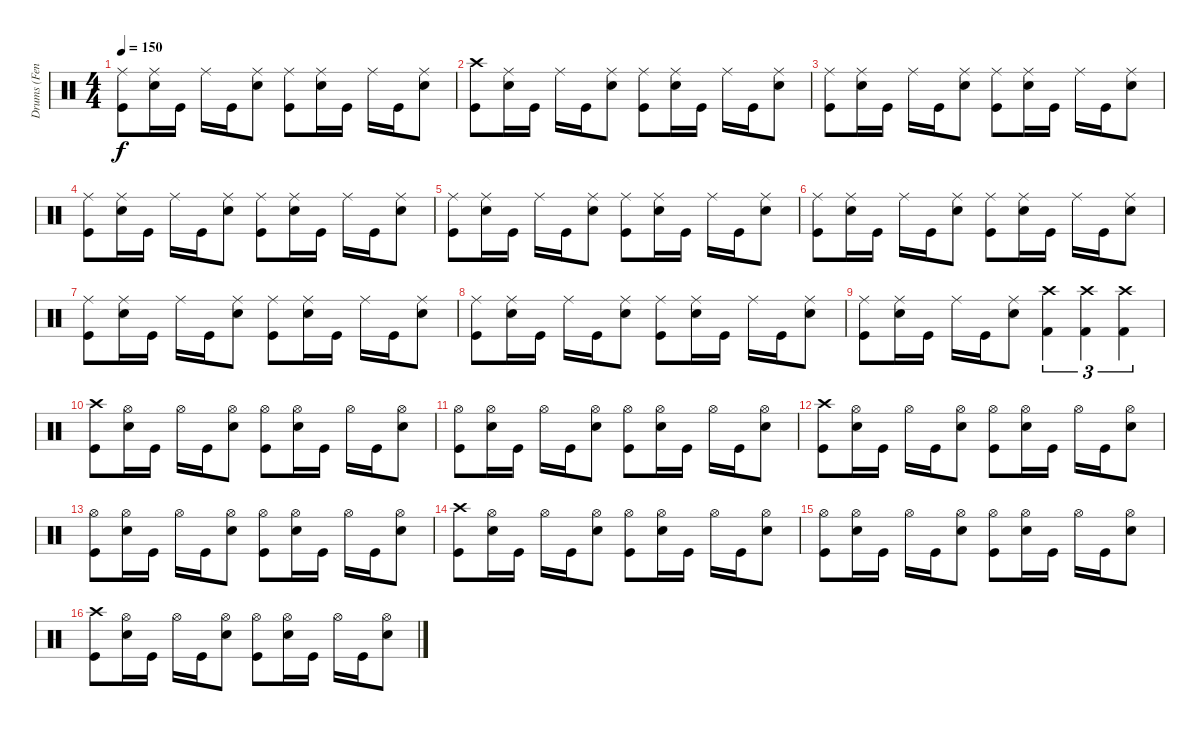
\track ("Drums (Fenriz)" "Drums (Fen") {instrument percussion}
\staff {score}
\articulation defaults
\ts (4 4)
\tempo 150
\clef neutral
\ks c
("Ride (middle)" "Kick (hit)").8{dy f} ("Ride (middle)" "Electric Snare (hit)").16 "Kick (hit)".16 "Ride (middle)".16 "Kick (hit)".16 ("Ride (middle)" "Electric Snare (hit)").8 ("Ride (middle)" "Kick (hit)").8 ("Ride (middle)" "Electric Snare (hit)").16 "Kick (hit)".16 "Ride (middle)".16 "Kick (hit)".16 ("Ride (middle)" "Electric Snare (hit)").8 |
("Crash high (hit)" "Kick (hit)").8 ("Ride (middle)" "Electric Snare (hit)").16 "Kick (hit)".16 "Ride (middle)".16 "Kick (hit)".16 ("Ride (middle)" "Electric Snare (hit)").8 ("Ride (middle)" "Kick (hit)").8 ("Ride (middle)" "Electric Snare (hit)").16 "Kick (hit)".16 "Ride (middle)".16 "Kick (hit)".16 ("Ride (middle)" "Electric Snare (hit)").8 |
("Ride (middle)" "Kick (hit)").8 ("Ride (middle)" "Electric Snare (hit)").16 "Kick (hit)".16 "Ride (middle)".16 "Kick (hit)".16 ("Ride (middle)" "Electric Snare (hit)").8 ("Ride (middle)" "Kick (hit)").8 ("Ride (middle)" "Electric Snare (hit)").16 "Kick (hit)".16 "Ride (middle)".16 "Kick (hit)".16 ("Ride (middle)" "Electric Snare (hit)").8 |
("Ride (middle)" "Kick (hit)").8 ("Ride (middle)" "Electric Snare (hit)").16 "Kick (hit)".16 "Ride (middle)".16 "Kick (hit)".16 ("Ride (middle)" "Electric Snare (hit)").8 ("Ride (middle)" "Kick (hit)").8 ("Ride (middle)" "Electric Snare (hit)").16 "Kick (hit)".16 "Ride (middle)".16 "Kick (hit)".16 ("Ride (middle)" "Electric Snare (hit)").8 |
("Ride (middle)" "Kick (hit)").8 ("Ride (middle)" "Electric Snare (hit)").16 "Kick (hit)".16 "Ride (middle)".16 "Kick (hit)".16 ("Ride (middle)" "Electric Snare (hit)").8 ("Ride (middle)" "Kick (hit)").8 ("Ride (middle)" "Electric Snare (hit)").16 "Kick (hit)".16 "Ride (middle)".16 "Kick (hit)".16 ("Ride (middle)" "Electric Snare (hit)").8 |
("Ride (middle)" "Kick (hit)").8 ("Ride (middle)" "Electric Snare (hit)").16 "Kick (hit)".16 "Ride (middle)".16 "Kick (hit)".16 ("Ride (middle)" "Electric Snare (hit)").8 ("Ride (middle)" "Kick (hit)").8 ("Ride (middle)" "Electric Snare (hit)").16 "Kick (hit)".16 "Ride (middle)".16 "Kick (hit)".16 ("Ride (middle)" "Electric Snare (hit)").8 |
("Ride (middle)" "Kick (hit)").8 ("Ride (middle)" "Electric Snare (hit)").16 "Kick (hit)".16 "Ride (middle)".16 "Kick (hit)".16 ("Ride (middle)" "Electric Snare (hit)").8 ("Ride (middle)" "Kick (hit)").8 ("Ride (middle)" "Electric Snare (hit)").16 "Kick (hit)".16 "Ride (middle)".16 "Kick (hit)".16 ("Ride (middle)" "Electric Snare (hit)").8 |
("Ride (middle)" "Kick (hit)").8 ("Ride (middle)" "Electric Snare (hit)").16 "Kick (hit)".16 "Ride (middle)".16 "Kick (hit)".16 ("Ride (middle)" "Electric Snare (hit)").8 ("Ride (middle)" "Kick (hit)").8 ("Ride (middle)" "Electric Snare (hit)").16 "Kick (hit)".16 "Ride (middle)".16 "Kick (hit)".16 ("Ride (middle)" "Electric Snare (hit)").8 |
("Ride (middle)" "Kick (hit)").8 ("Ride (middle)" "Electric Snare (hit)").16 "Kick (hit)".16 "Ride (middle)".16 "Kick (hit)".16 ("Ride (middle)" "Electric Snare (hit)").8 ("Crash high (hit)" "Kick (hit) 2").4{tu (3 2)} ("Crash high (hit)" "Kick (hit) 2").4{tu (3 2)} ("Crash high (hit)" "Kick (hit) 2").4{tu (3 2)} |
("Crash high (hit)" "Kick (hit)").8 ("Hi-Hat (open)" "Electric Snare (hit)").16 "Kick (hit)".16 "Hi-Hat (open)".16 "Kick (hit)".16 ("Hi-Hat (open)" "Electric Snare (hit)").8 ("Hi-Hat (open)" "Kick (hit)").8 ("Hi-Hat (open)" "Electric Snare (hit)").16 "Kick (hit)".16 "Hi-Hat (open)".16 "Kick (hit)".16 ("Hi-Hat (open)" "Electric Snare (hit)").8 |
("Hi-Hat (open)" "Kick (hit)").8 ("Hi-Hat (open)" "Electric Snare (hit)").16 "Kick (hit)".16 "Hi-Hat (open)".16 "Kick (hit)".16 ("Hi-Hat (open)" "Electric Snare (hit)").8 ("Hi-Hat (open)" "Kick (hit)").8 ("Hi-Hat (open)" "Electric Snare (hit)").16 "Kick (hit)".16 "Hi-Hat (open)".16 "Kick (hit)".16 ("Hi-Hat (open)" "Electric Snare (hit)").8 |
("Crash high (hit)" "Kick (hit)").8 ("Hi-Hat (open)" "Electric Snare (hit)").16 "Kick (hit)".16 "Hi-Hat (open)".16 "Kick (hit)".16 ("Hi-Hat (open)" "Electric Snare (hit)").8 ("Hi-Hat (open)" "Kick (hit)").8 ("Hi-Hat (open)" "Electric Snare (hit)").16 "Kick (hit)".16 "Hi-Hat (open)".16 "Kick (hit)".16 ("Hi-Hat (open)" "Electric Snare (hit)").8 |
("Hi-Hat (open)" "Kick (hit)").8 ("Hi-Hat (open)" "Electric Snare (hit)").16 "Kick (hit)".16 "Hi-Hat (open)".16 "Kick (hit)".16 ("Hi-Hat (open)" "Electric Snare (hit)").8 ("Hi-Hat (open)" "Kick (hit)").8 ("Hi-Hat (open)" "Electric Snare (hit)").16 "Kick (hit)".16 "Hi-Hat (open)".16 "Kick (hit)".16 ("Hi-Hat (open)" "Electric Snare (hit)").8 |
("Crash high (hit)" "Kick (hit)").8 ("Hi-Hat (open)" "Electric Snare (hit)").16 "Kick (hit)".16 "Hi-Hat (open)".16 "Kick (hit)".16 ("Hi-Hat (open)" "Electric Snare (hit)").8 ("Hi-Hat (open)" "Kick (hit)").8 ("Hi-Hat (open)" "Electric Snare (hit)").16 "Kick (hit)".16 "Hi-Hat (open)".16 "Kick (hit)".16 ("Hi-Hat (open)" "Electric Snare (hit)").8 |
("Hi-Hat (open)" "Kick (hit)").8 ("Hi-Hat (open)" "Electric Snare (hit)").16 "Kick (hit)".16 "Hi-Hat (open)".16 "Kick (hit)".16 ("Hi-Hat (open)" "Electric Snare (hit)").8 ("Hi-Hat (open)" "Kick (hit)").8 ("Hi-Hat (open)" "Electric Snare (hit)").16 "Kick (hit)".16 "Hi-Hat (open)".16 "Kick (hit)".16 ("Hi-Hat (open)" "Electric Snare (hit)").8 |
("Crash high (hit)" "Kick (hit)").8 ("Hi-Hat (open)" "Electric Snare (hit)").16 "Kick (hit)".16 "Hi-Hat (open)".16 "Kick (hit)".16 ("Hi-Hat (open)" "Electric Snare (hit)").8 ("Hi-Hat (open)" "Kick (hit)").8 ("Hi-Hat (open)" "Electric Snare (hit)").16 "Kick (hit)".16 "Hi-Hat (open)".16 "Kick (hit)".16 ("Hi-Hat (open)" "Electric Snare (hit)").8
